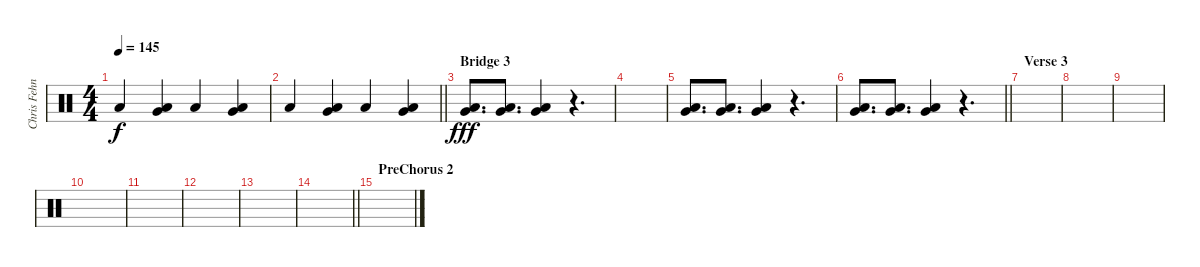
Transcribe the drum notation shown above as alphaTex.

\track ("Chris Fehn" "Chris Fehn") {instrument percussion}
\staff {score}
\articulation defaults
\ts (4 4)
\tempo 145
\clef neutral
\ks c "Low Floor Tom (hit)".4{dy f}
("Very Low Tom (hit)" "Low Floor Tom (hit)").4 "Low Floor Tom (hit)".4 ("Very Low Tom (hit)" "Low Floor Tom (hit)").4 |
\barLineRight lightlight "Low Floor Tom (hit)".4
("Very Low Tom (hit)" "Low Floor Tom (hit)").4 "Low Floor Tom (hit)".4 ("Very Low Tom (hit)" "Low Floor Tom (hit)").4 |
\section ("" "Bridge 3")
("Very Low Tom (hit)" "Low Floor Tom (hit)").8{d dy fff} ("Very Low Tom (hit)" "Low Floor Tom (hit)").8{d} ("Very Low Tom (hit)" "Low Floor Tom (hit)").4 r.4{d} |
|
("Very Low Tom (hit)" "Low Floor Tom (hit)").8{d} ("Very Low Tom (hit)" "Low Floor Tom (hit)").8{d} ("Very Low Tom (hit)" "Low Floor Tom (hit)").4 r.4{d} |
\barLineRight lightlight
("Very Low Tom (hit)" "Low Floor Tom (hit)").8{d} ("Very Low Tom (hit)" "Low Floor Tom (hit)").8{d} ("Very Low Tom (hit)" "Low Floor Tom (hit)").4 r.4{d} |
\section ("" "Verse 3")
|
|
|
|
|
|
|
\barLineRight lightlight
|
\section ("" "PreChorus 2")
